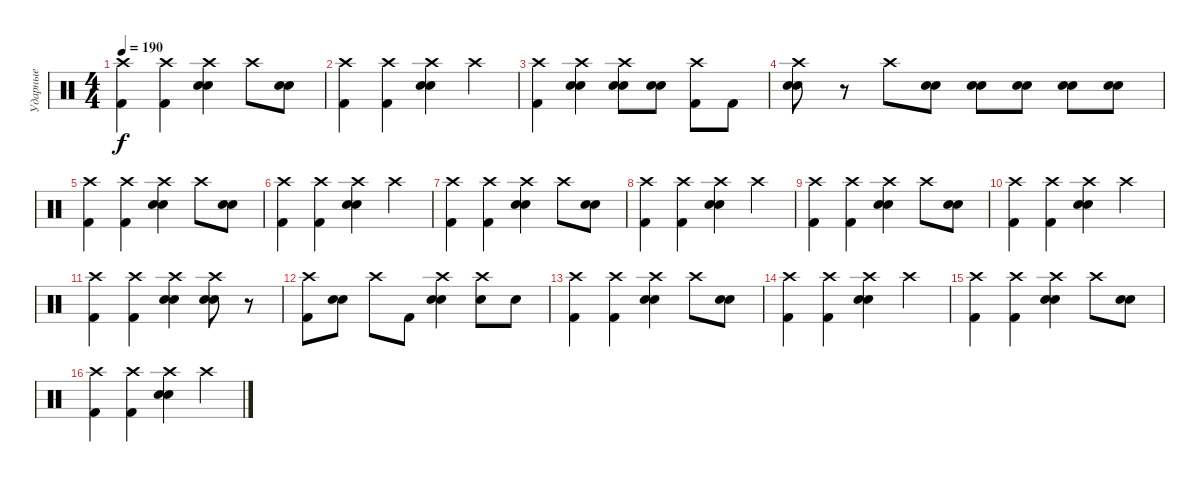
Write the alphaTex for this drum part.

\track ("Ударные" "Ударные") {instrument percussion}
\staff {score}
\articulation defaults
\ts (4 4)
\tempo 190
\clef neutral
\ks c
("Crash high (hit)" "Kick (hit) 2").4{dy f} ("Crash high (hit)" "Kick (hit) 2").4 ("Crash high (hit)" "Electric Snare (hit)" "Snare (hit) 2").4 "Crash high (hit)".8 ("Electric Snare (hit)" "Snare (hit) 2").8 |
("Crash high (hit)" "Kick (hit) 2").4 ("Crash high (hit)" "Kick (hit) 2").4 ("Crash high (hit)" "Electric Snare (hit)" "Snare (hit) 2").4 "Crash high (hit)".4 |
("Crash high (hit)" "Kick (hit) 2").4 ("Crash high (hit)" "Electric Snare (hit)" "Snare (hit) 2").4 ("Crash high (hit)" "Electric Snare (hit)" "Snare (hit) 2").8 ("Electric Snare (hit)" "Snare (hit) 2").8 ("Crash high (hit)" "Kick (hit) 2").8 "Kick (hit) 2".8 |
("Crash high (hit)" "Electric Snare (hit)" "Snare (hit) 2").8 r.8 "Crash high (hit)".8 ("Electric Snare (hit)" "Snare (hit) 2").8 ("Electric Snare (hit)" "Snare (hit) 2").8 ("Electric Snare (hit)" "Snare (hit) 2").8 ("Electric Snare (hit)" "Snare (hit) 2").8 ("Electric Snare (hit)" "Snare (hit) 2").8 |
("Crash high (hit)" "Kick (hit) 2").4 ("Crash high (hit)" "Kick (hit) 2").4 ("Crash high (hit)" "Electric Snare (hit)" "Snare (hit) 2").4 "Crash high (hit)".8 ("Electric Snare (hit)" "Snare (hit) 2").8 |
("Crash high (hit)" "Kick (hit) 2").4 ("Crash high (hit)" "Kick (hit) 2").4 ("Crash high (hit)" "Electric Snare (hit)" "Snare (hit) 2").4 "Crash high (hit)".4 |
("Crash high (hit)" "Kick (hit) 2").4 ("Crash high (hit)" "Kick (hit) 2").4 ("Crash high (hit)" "Electric Snare (hit)" "Snare (hit) 2").4 "Crash high (hit)".8 ("Electric Snare (hit)" "Snare (hit) 2").8 |
("Crash high (hit)" "Kick (hit) 2").4 ("Crash high (hit)" "Kick (hit) 2").4 ("Crash high (hit)" "Electric Snare (hit)" "Snare (hit) 2").4 "Crash high (hit)".4 |
("Crash high (hit)" "Kick (hit) 2").4 ("Crash high (hit)" "Kick (hit) 2").4 ("Crash high (hit)" "Electric Snare (hit)" "Snare (hit) 2").4 "Crash high (hit)".8 ("Electric Snare (hit)" "Snare (hit) 2").8 |
("Crash high (hit)" "Kick (hit) 2").4 ("Crash high (hit)" "Kick (hit) 2").4 ("Crash high (hit)" "Electric Snare (hit)" "Snare (hit) 2").4 "Crash high (hit)".4 |
("Crash high (hit)" "Kick (hit) 2").4 ("Crash high (hit)" "Kick (hit) 2").4 ("Crash high (hit)" "Electric Snare (hit)" "Snare (hit) 2").4 ("Crash high (hit)" "Electric Snare (hit)" "Snare (hit) 2").8 r.8 |
("Crash high (hit)" "Kick (hit) 2").8 ("Electric Snare (hit)" "Snare (hit) 2").8 "Crash high (hit)".8 "Kick (hit) 2".8 ("Crash high (hit)" "Electric Snare (hit)" "Snare (hit) 2").4 ("Crash high (hit)" "Electric Snare (hit)").8 "Electric Snare (hit)".8 |
("Crash high (hit)" "Kick (hit) 2").4 ("Crash high (hit)" "Kick (hit) 2").4 ("Crash high (hit)" "Electric Snare (hit)" "Snare (hit) 2").4 "Crash high (hit)".8 ("Electric Snare (hit)" "Snare (hit) 2").8 |
("Crash high (hit)" "Kick (hit) 2").4 ("Crash high (hit)" "Kick (hit) 2").4 ("Crash high (hit)" "Electric Snare (hit)" "Snare (hit) 2").4 "Crash high (hit)".4 |
("Crash high (hit)" "Kick (hit) 2").4 ("Crash high (hit)" "Kick (hit) 2").4 ("Crash high (hit)" "Electric Snare (hit)" "Snare (hit) 2").4 "Crash high (hit)".8 ("Electric Snare (hit)" "Snare (hit) 2").8 |
("Crash high (hit)" "Kick (hit) 2").4 ("Crash high (hit)" "Kick (hit) 2").4 ("Crash high (hit)" "Electric Snare (hit)" "Snare (hit) 2").4 "Crash high (hit)".4
